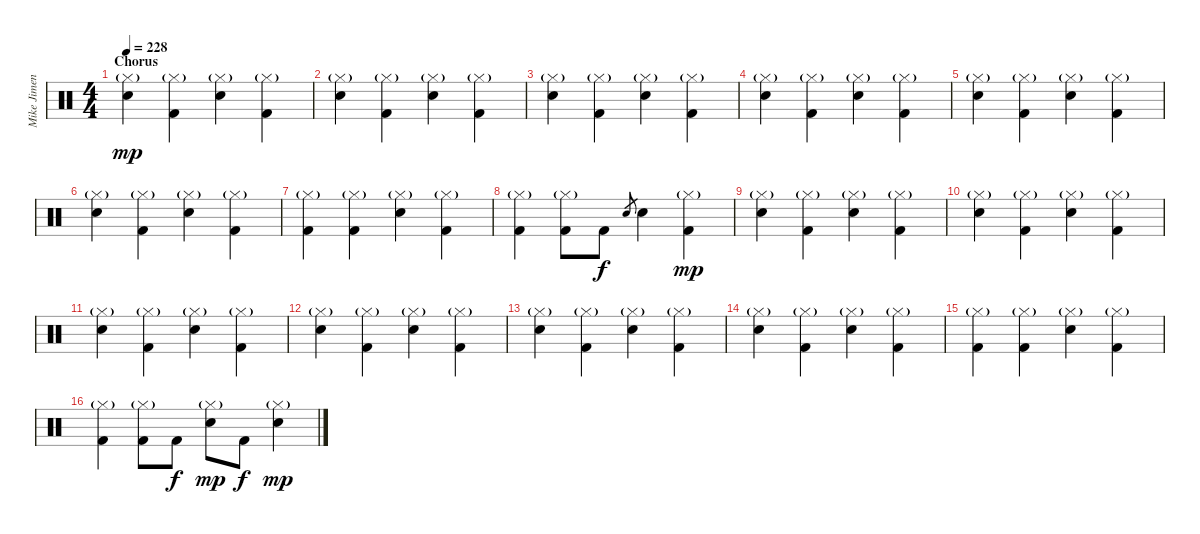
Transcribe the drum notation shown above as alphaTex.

\track ("Mike Jimenez" "Mike Jimen") {instrument percussion}
\staff {score}
\articulation defaults
\ts (4 4)
\section ("" "Chorus")
\tempo 228
\clef neutral
\ks c
("Hi-Hat (closed)"{g} "Electric Snare (hit)").4{dy mp} ("Hi-Hat (closed)"{g} "Kick (hit) 2").4 ("Hi-Hat (closed)"{g} "Electric Snare (hit)").4 ("Hi-Hat (closed)"{g} "Kick (hit) 2").4 |
("Hi-Hat (closed)"{g} "Electric Snare (hit)").4 ("Hi-Hat (closed)"{g} "Kick (hit) 2").4 ("Hi-Hat (closed)"{g} "Electric Snare (hit)").4 ("Hi-Hat (closed)"{g} "Kick (hit) 2").4 |
("Hi-Hat (closed)"{g} "Electric Snare (hit)").4 ("Hi-Hat (closed)"{g} "Kick (hit) 2").4 ("Hi-Hat (closed)"{g} "Electric Snare (hit)").4 ("Hi-Hat (closed)"{g} "Kick (hit) 2").4 |
("Hi-Hat (closed)"{g} "Electric Snare (hit)").4 ("Hi-Hat (closed)"{g} "Kick (hit) 2").4 ("Hi-Hat (closed)"{g} "Electric Snare (hit)").4 ("Hi-Hat (closed)"{g} "Kick (hit) 2").4 |
("Hi-Hat (closed)"{g} "Electric Snare (hit)").4 ("Hi-Hat (closed)"{g} "Kick (hit) 2").4 ("Hi-Hat (closed)"{g} "Electric Snare (hit)").4 ("Hi-Hat (closed)"{g} "Kick (hit) 2").4 |
("Hi-Hat (closed)"{g} "Electric Snare (hit)").4 ("Hi-Hat (closed)"{g} "Kick (hit) 2").4 ("Hi-Hat (closed)"{g} "Electric Snare (hit)").4 ("Hi-Hat (closed)"{g} "Kick (hit) 2").4 |
("Hi-Hat (closed)"{g} "Kick (hit) 2").4 ("Hi-Hat (closed)"{g} "Kick (hit) 2").4 ("Hi-Hat (closed)"{g} "Electric Snare (hit)").4 ("Hi-Hat (closed)"{g} "Kick (hit) 2").4 |
("Hi-Hat (closed)"{g} "Kick (hit) 2").4 ("Hi-Hat (closed)"{g} "Kick (hit) 2").8 "Kick (hit) 2".8{dy f} "Electric Snare (hit)".8{gr} "Electric Snare (hit)".4 ("Hi-Hat (closed)"{g} "Kick (hit) 2").4{dy mp} |
("Hi-Hat (closed)"{g} "Electric Snare (hit)").4 ("Hi-Hat (closed)"{g} "Kick (hit) 2").4 ("Hi-Hat (closed)"{g} "Electric Snare (hit)").4 ("Hi-Hat (closed)"{g} "Kick (hit) 2").4 |
("Hi-Hat (closed)"{g} "Electric Snare (hit)").4 ("Hi-Hat (closed)"{g} "Kick (hit) 2").4 ("Hi-Hat (closed)"{g} "Electric Snare (hit)").4 ("Hi-Hat (closed)"{g} "Kick (hit) 2").4 |
("Hi-Hat (closed)"{g} "Electric Snare (hit)").4 ("Hi-Hat (closed)"{g} "Kick (hit) 2").4 ("Hi-Hat (closed)"{g} "Electric Snare (hit)").4 ("Hi-Hat (closed)"{g} "Kick (hit) 2").4 |
("Hi-Hat (closed)"{g} "Electric Snare (hit)").4 ("Hi-Hat (closed)"{g} "Kick (hit) 2").4 ("Hi-Hat (closed)"{g} "Electric Snare (hit)").4 ("Hi-Hat (closed)"{g} "Kick (hit) 2").4 |
("Hi-Hat (closed)"{g} "Electric Snare (hit)").4 ("Hi-Hat (closed)"{g} "Kick (hit) 2").4 ("Hi-Hat (closed)"{g} "Electric Snare (hit)").4 ("Hi-Hat (closed)"{g} "Kick (hit) 2").4 |
("Hi-Hat (closed)"{g} "Electric Snare (hit)").4 ("Hi-Hat (closed)"{g} "Kick (hit) 2").4 ("Hi-Hat (closed)"{g} "Electric Snare (hit)").4 ("Hi-Hat (closed)"{g} "Kick (hit) 2").4 |
("Hi-Hat (closed)"{g} "Kick (hit) 2").4 ("Hi-Hat (closed)"{g} "Kick (hit) 2").4 ("Hi-Hat (closed)"{g} "Electric Snare (hit)").4 ("Hi-Hat (closed)"{g} "Kick (hit) 2").4 |
("Hi-Hat (closed)"{g} "Kick (hit) 2").4 ("Hi-Hat (closed)"{g} "Kick (hit) 2").8 "Kick (hit) 2".8{dy f} ("Hi-Hat (closed)"{g} "Electric Snare (hit)").8{dy mp} "Kick (hit) 2".8{dy f} ("Hi-Hat (closed)"{g} "Electric Snare (hit)").4{dy mp}
